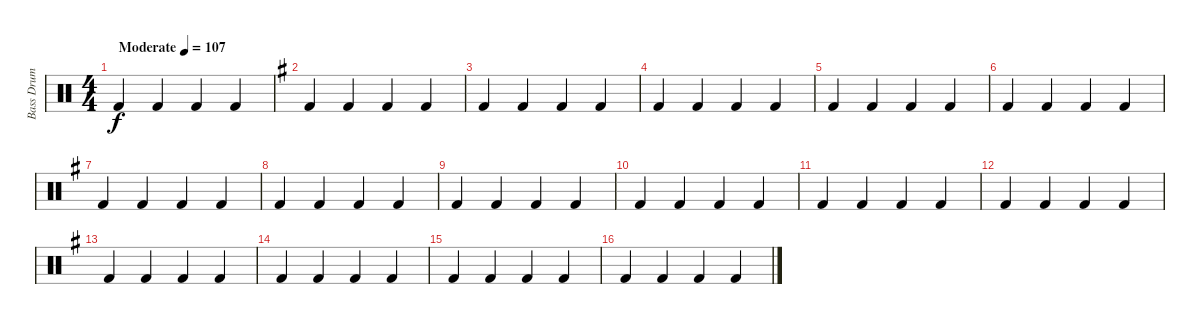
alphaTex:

\track ("Bass Drum" "Bass Drum") {instrument percussion}
\staff {score}
\articulation defaults
\ts (4 4)
\tempo (107 "Moderate")
\clef neutral
\ks c "Kick (hit) 2".4{dy f} "Kick (hit) 2".4 "Kick (hit) 2".4 "Kick (hit) 2".4
|
\ks g "Kick (hit) 2".4 "Kick (hit) 2".4 "Kick (hit) 2".4 "Kick (hit) 2".4
|
"Kick (hit) 2".4 "Kick (hit) 2".4 "Kick (hit) 2".4 "Kick (hit) 2".4 |
"Kick (hit) 2".4 "Kick (hit) 2".4 "Kick (hit) 2".4 "Kick (hit) 2".4 |
"Kick (hit) 2".4 "Kick (hit) 2".4 "Kick (hit) 2".4 "Kick (hit) 2".4 |
"Kick (hit) 2".4 "Kick (hit) 2".4 "Kick (hit) 2".4 "Kick (hit) 2".4 |
"Kick (hit) 2".4 "Kick (hit) 2".4 "Kick (hit) 2".4 "Kick (hit) 2".4 |
"Kick (hit) 2".4 "Kick (hit) 2".4 "Kick (hit) 2".4 "Kick (hit) 2".4 |
"Kick (hit) 2".4 "Kick (hit) 2".4 "Kick (hit) 2".4 "Kick (hit) 2".4 |
"Kick (hit) 2".4 "Kick (hit) 2".4 "Kick (hit) 2".4 "Kick (hit) 2".4 |
"Kick (hit) 2".4 "Kick (hit) 2".4 "Kick (hit) 2".4 "Kick (hit) 2".4 |
"Kick (hit) 2".4 "Kick (hit) 2".4 "Kick (hit) 2".4 "Kick (hit) 2".4 |
"Kick (hit) 2".4 "Kick (hit) 2".4 "Kick (hit) 2".4 "Kick (hit) 2".4 |
"Kick (hit) 2".4 "Kick (hit) 2".4 "Kick (hit) 2".4 "Kick (hit) 2".4 |
"Kick (hit) 2".4 "Kick (hit) 2".4 "Kick (hit) 2".4 "Kick (hit) 2".4 |
"Kick (hit) 2".4 "Kick (hit) 2".4 "Kick (hit) 2".4 "Kick (hit) 2".4
